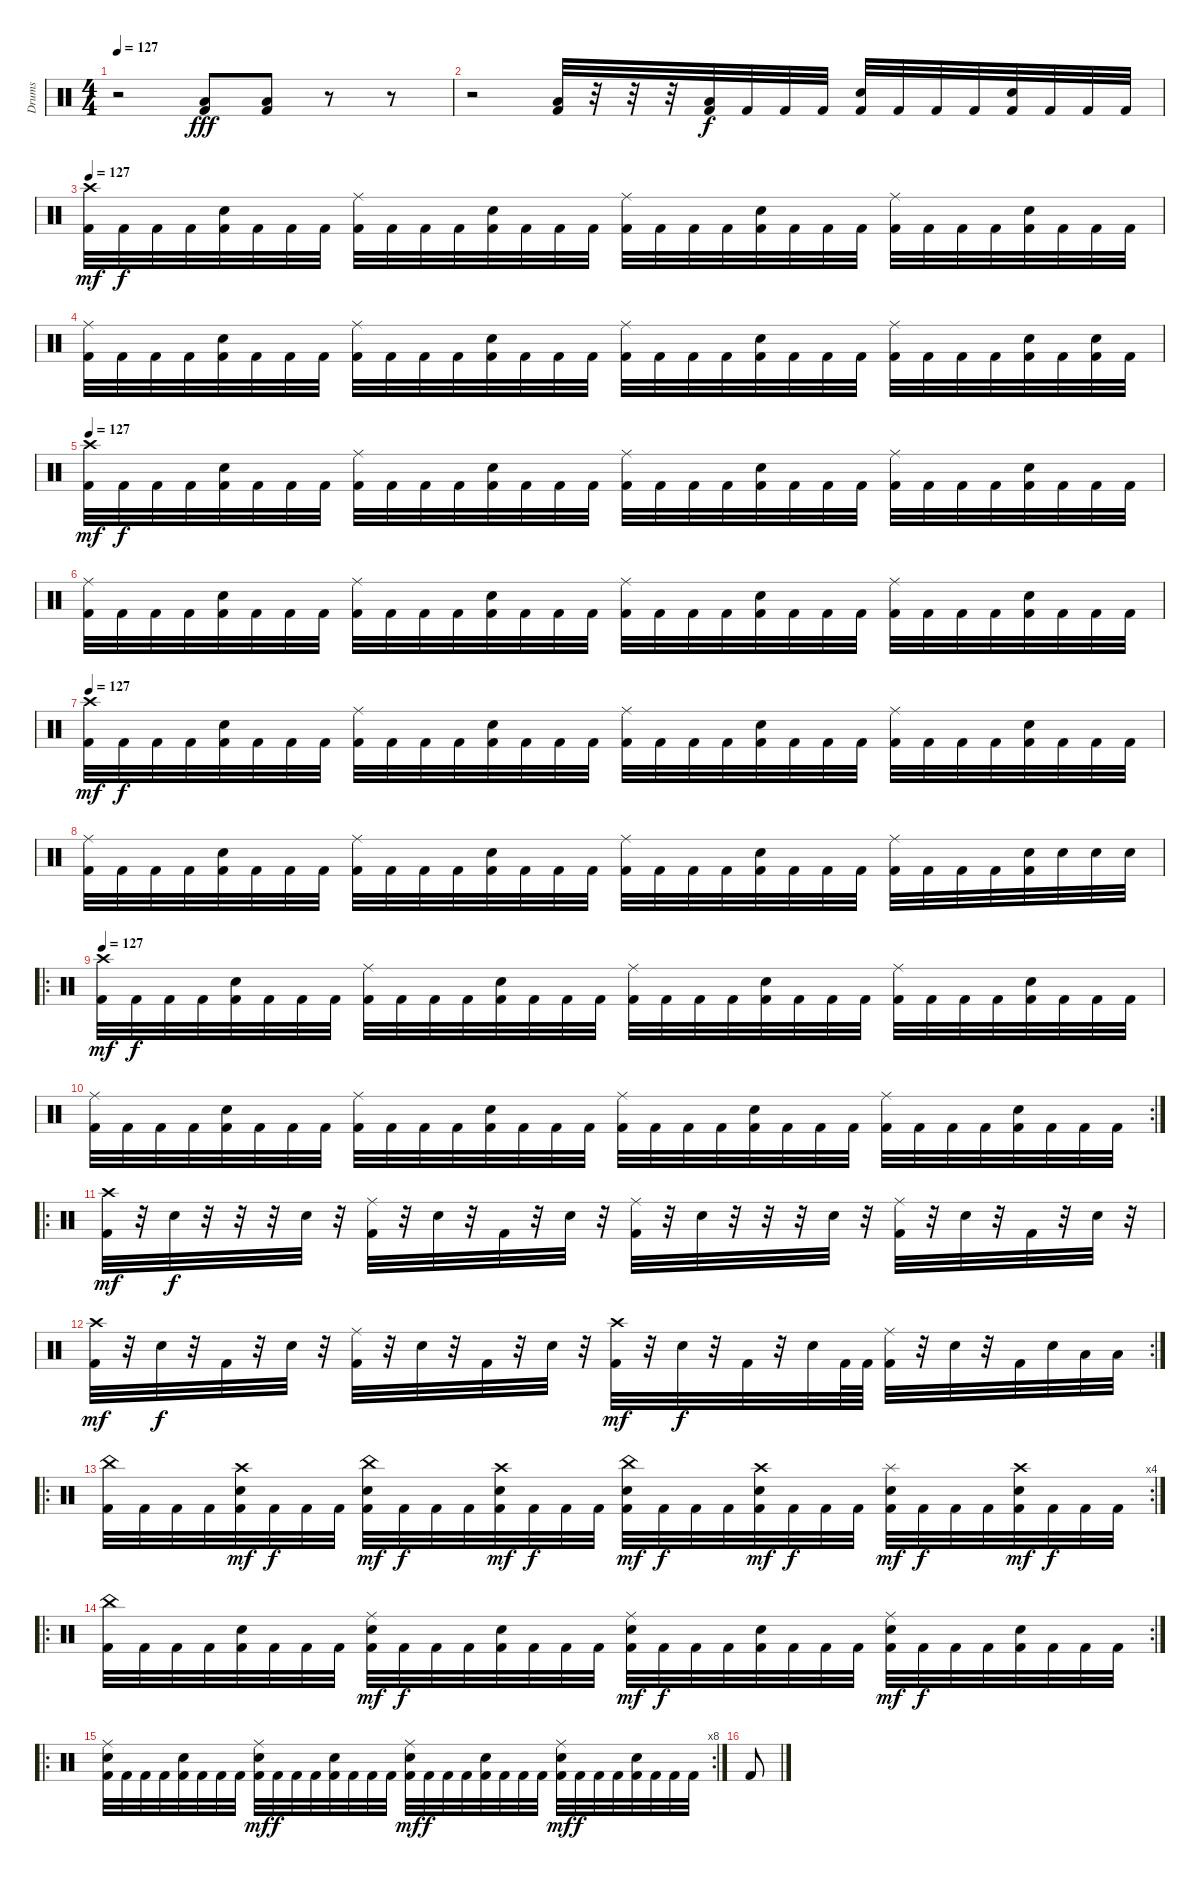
\track ("Drums" "Drums") {instrument percussion}
\staff {score}
\articulation defaults
\ts (4 4)
\tempo 127
\clef neutral
\ks c
r.2{dy fff} ("Low Tom (hit)" "Kick (hit) 2").8 ("Low Tom (hit)" "Kick (hit) 2").8 r.8 r.8 |
r.2 ("Low Tom (hit)" "Kick (hit) 2").32 r.32 r.32 r.32 ("Low Tom (hit)" "Kick (hit) 2").32{dy f} "Kick (hit) 2".32 "Kick (hit) 2".32 "Kick (hit) 2".32 ("Snare (hit) 2" "Kick (hit) 2").32 "Kick (hit) 2".32 "Kick (hit) 2".32 "Kick (hit) 2".32 ("Snare (hit) 2" "Kick (hit) 2").32 "Kick (hit) 2".32 "Kick (hit) 2".32 "Kick (hit) 2".32 |
\tempo 127
("Crash high (hit)" "Kick (hit) 2").32{dy mf} "Kick (hit) 2".32{dy f} "Kick (hit) 2".32 "Kick (hit) 2".32 ("Snare (hit) 2" "Kick (hit) 2").32 "Kick (hit) 2".32 "Kick (hit) 2".32 "Kick (hit) 2".32 ("Ride (middle)" "Kick (hit) 2").32 "Kick (hit) 2".32 "Kick (hit) 2".32 "Kick (hit) 2".32 ("Snare (hit) 2" "Kick (hit) 2").32 "Kick (hit) 2".32 "Kick (hit) 2".32 "Kick (hit) 2".32 ("Ride (middle)" "Kick (hit) 2").32 "Kick (hit) 2".32 "Kick (hit) 2".32 "Kick (hit) 2".32 ("Snare (hit) 2" "Kick (hit) 2").32 "Kick (hit) 2".32 "Kick (hit) 2".32 "Kick (hit) 2".32 ("Ride (middle)" "Kick (hit) 2").32 "Kick (hit) 2".32 "Kick (hit) 2".32 "Kick (hit) 2".32 ("Snare (hit) 2" "Kick (hit) 2").32 "Kick (hit) 2".32 "Kick (hit) 2".32 "Kick (hit) 2".32 |
("Ride (middle)" "Kick (hit) 2").32 "Kick (hit) 2".32 "Kick (hit) 2".32 "Kick (hit) 2".32 ("Snare (hit) 2" "Kick (hit) 2").32 "Kick (hit) 2".32 "Kick (hit) 2".32 "Kick (hit) 2".32 ("Ride (middle)" "Kick (hit) 2").32 "Kick (hit) 2".32 "Kick (hit) 2".32 "Kick (hit) 2".32 ("Snare (hit) 2" "Kick (hit) 2").32 "Kick (hit) 2".32 "Kick (hit) 2".32 "Kick (hit) 2".32 ("Ride (middle)" "Kick (hit) 2").32 "Kick (hit) 2".32 "Kick (hit) 2".32 "Kick (hit) 2".32 ("Snare (hit) 2" "Kick (hit) 2").32 "Kick (hit) 2".32 "Kick (hit) 2".32 "Kick (hit) 2".32 ("Ride (middle)" "Kick (hit) 2").32 "Kick (hit) 2".32 "Kick (hit) 2".32 "Kick (hit) 2".32 ("Snare (hit) 2" "Kick (hit) 2").32 "Kick (hit) 2".32 ("Snare (hit) 2" "Kick (hit) 2").32 "Kick (hit) 2".32 |
\tempo 127
("Crash high (hit)" "Kick (hit) 2").32{dy mf} "Kick (hit) 2".32{dy f} "Kick (hit) 2".32 "Kick (hit) 2".32 ("Snare (hit) 2" "Kick (hit) 2").32 "Kick (hit) 2".32 "Kick (hit) 2".32 "Kick (hit) 2".32 ("Ride (middle)" "Kick (hit) 2").32 "Kick (hit) 2".32 "Kick (hit) 2".32 "Kick (hit) 2".32 ("Snare (hit) 2" "Kick (hit) 2").32 "Kick (hit) 2".32 "Kick (hit) 2".32 "Kick (hit) 2".32 ("Ride (middle)" "Kick (hit) 2").32 "Kick (hit) 2".32 "Kick (hit) 2".32 "Kick (hit) 2".32 ("Snare (hit) 2" "Kick (hit) 2").32 "Kick (hit) 2".32 "Kick (hit) 2".32 "Kick (hit) 2".32 ("Ride (middle)" "Kick (hit) 2").32 "Kick (hit) 2".32 "Kick (hit) 2".32 "Kick (hit) 2".32 ("Snare (hit) 2" "Kick (hit) 2").32 "Kick (hit) 2".32 "Kick (hit) 2".32 "Kick (hit) 2".32 |
("Ride (middle)" "Kick (hit) 2").32 "Kick (hit) 2".32 "Kick (hit) 2".32 "Kick (hit) 2".32 ("Snare (hit) 2" "Kick (hit) 2").32 "Kick (hit) 2".32 "Kick (hit) 2".32 "Kick (hit) 2".32 ("Ride (middle)" "Kick (hit) 2").32 "Kick (hit) 2".32 "Kick (hit) 2".32 "Kick (hit) 2".32 ("Snare (hit) 2" "Kick (hit) 2").32 "Kick (hit) 2".32 "Kick (hit) 2".32 "Kick (hit) 2".32 ("Ride (middle)" "Kick (hit) 2").32 "Kick (hit) 2".32 "Kick (hit) 2".32 "Kick (hit) 2".32 ("Snare (hit) 2" "Kick (hit) 2").32 "Kick (hit) 2".32 "Kick (hit) 2".32 "Kick (hit) 2".32 ("Ride (middle)" "Kick (hit) 2").32 "Kick (hit) 2".32 "Kick (hit) 2".32 "Kick (hit) 2".32 ("Snare (hit) 2" "Kick (hit) 2").32 "Kick (hit) 2".32 "Kick (hit) 2".32 "Kick (hit) 2".32 |
\tempo 127
("Crash high (hit)" "Kick (hit) 2").32{dy mf} "Kick (hit) 2".32{dy f} "Kick (hit) 2".32 "Kick (hit) 2".32 ("Snare (hit) 2" "Kick (hit) 2").32 "Kick (hit) 2".32 "Kick (hit) 2".32 "Kick (hit) 2".32 ("Ride (middle)" "Kick (hit) 2").32 "Kick (hit) 2".32 "Kick (hit) 2".32 "Kick (hit) 2".32 ("Snare (hit) 2" "Kick (hit) 2").32 "Kick (hit) 2".32 "Kick (hit) 2".32 "Kick (hit) 2".32 ("Ride (middle)" "Kick (hit) 2").32 "Kick (hit) 2".32 "Kick (hit) 2".32 "Kick (hit) 2".32 ("Snare (hit) 2" "Kick (hit) 2").32 "Kick (hit) 2".32 "Kick (hit) 2".32 "Kick (hit) 2".32 ("Ride (middle)" "Kick (hit) 2").32 "Kick (hit) 2".32 "Kick (hit) 2".32 "Kick (hit) 2".32 ("Snare (hit) 2" "Kick (hit) 2").32 "Kick (hit) 2".32 "Kick (hit) 2".32 "Kick (hit) 2".32 |
("Ride (middle)" "Kick (hit) 2").32 "Kick (hit) 2".32 "Kick (hit) 2".32 "Kick (hit) 2".32 ("Snare (hit) 2" "Kick (hit) 2").32 "Kick (hit) 2".32 "Kick (hit) 2".32 "Kick (hit) 2".32 ("Ride (middle)" "Kick (hit) 2").32 "Kick (hit) 2".32 "Kick (hit) 2".32 "Kick (hit) 2".32 ("Snare (hit) 2" "Kick (hit) 2").32 "Kick (hit) 2".32 "Kick (hit) 2".32 "Kick (hit) 2".32 ("Ride (middle)" "Kick (hit) 2").32 "Kick (hit) 2".32 "Kick (hit) 2".32 "Kick (hit) 2".32 ("Snare (hit) 2" "Kick (hit) 2").32 "Kick (hit) 2".32 "Kick (hit) 2".32 "Kick (hit) 2".32 ("Ride (middle)" "Kick (hit) 2").32 "Kick (hit) 2".32 "Kick (hit) 2".32 "Kick (hit) 2".32 ("Snare (hit) 2" "Kick (hit) 2").32 "Snare (hit) 2".32 "Snare (hit) 2".32 "Snare (hit) 2".32 |
\ro
\tempo 127
("Crash high (hit)" "Kick (hit) 2").32{dy mf} "Kick (hit) 2".32{dy f} "Kick (hit) 2".32 "Kick (hit) 2".32 ("Snare (hit) 2" "Kick (hit) 2").32 "Kick (hit) 2".32 "Kick (hit) 2".32 "Kick (hit) 2".32 ("Ride (middle)" "Kick (hit) 2").32 "Kick (hit) 2".32 "Kick (hit) 2".32 "Kick (hit) 2".32 ("Snare (hit) 2" "Kick (hit) 2").32 "Kick (hit) 2".32 "Kick (hit) 2".32 "Kick (hit) 2".32 ("Ride (middle)" "Kick (hit) 2").32 "Kick (hit) 2".32 "Kick (hit) 2".32 "Kick (hit) 2".32 ("Snare (hit) 2" "Kick (hit) 2").32 "Kick (hit) 2".32 "Kick (hit) 2".32 "Kick (hit) 2".32 ("Ride (middle)" "Kick (hit) 2").32 "Kick (hit) 2".32 "Kick (hit) 2".32 "Kick (hit) 2".32 ("Snare (hit) 2" "Kick (hit) 2").32 "Kick (hit) 2".32 "Kick (hit) 2".32 "Kick (hit) 2".32 |
\rc 2
("Ride (middle)" "Kick (hit) 2").32 "Kick (hit) 2".32 "Kick (hit) 2".32 "Kick (hit) 2".32 ("Snare (hit) 2" "Kick (hit) 2").32 "Kick (hit) 2".32 "Kick (hit) 2".32 "Kick (hit) 2".32 ("Ride (middle)" "Kick (hit) 2").32 "Kick (hit) 2".32 "Kick (hit) 2".32 "Kick (hit) 2".32 ("Snare (hit) 2" "Kick (hit) 2").32 "Kick (hit) 2".32 "Kick (hit) 2".32 "Kick (hit) 2".32 ("Ride (middle)" "Kick (hit) 2").32 "Kick (hit) 2".32 "Kick (hit) 2".32 "Kick (hit) 2".32 ("Snare (hit) 2" "Kick (hit) 2").32 "Kick (hit) 2".32 "Kick (hit) 2".32 "Kick (hit) 2".32 ("Ride (middle)" "Kick (hit) 2").32 "Kick (hit) 2".32 "Kick (hit) 2".32 "Kick (hit) 2".32 ("Snare (hit) 2" "Kick (hit) 2").32 "Kick (hit) 2".32 "Kick (hit) 2".32 "Kick (hit) 2".32 |
\ro
("Crash high (hit)" "Kick (hit) 2").32{dy mf} r.32 "Snare (hit) 2".32{dy f} r.32 r.32 r.32 "Snare (hit) 2".32 r.32 ("Ride (middle)" "Kick (hit) 2").32 r.32 "Snare (hit) 2".32 r.32 "Kick (hit) 2".32 r.32 "Snare (hit) 2".32 r.32 ("Ride (middle)" "Kick (hit) 2").32 r.32 "Snare (hit) 2".32 r.32 r.32 r.32 "Snare (hit) 2".32 r.32 ("Ride (middle)" "Kick (hit) 2").32 r.32 "Snare (hit) 2".32 r.32 "Kick (hit) 2".32 r.32 "Snare (hit) 2".32 r.32 |
\rc 2
("Crash high (hit)" "Kick (hit) 2").32{dy mf} r.32 "Snare (hit) 2".32{dy f} r.32 "Kick (hit) 2".32 r.32 "Snare (hit) 2".32 r.32 ("Ride (middle)" "Kick (hit) 2").32 r.32 "Snare (hit) 2".32 r.32 "Kick (hit) 2".32 r.32 "Snare (hit) 2".32 r.32 ("Crash high (hit)" "Kick (hit) 2").32{dy mf} r.32 "Snare (hit) 2".32{dy f} r.32 "Kick (hit) 2".32 r.32 "Snare (hit) 2".32 "Kick (hit) 2".64 "Kick (hit) 2".64 ("Ride (middle)" "Kick (hit) 2").32 r.32 "Snare (hit) 2".32 r.32 "Kick (hit) 2".32 "Snare (hit) 2".32 "Low Tom (hit)".32 "Low Tom (hit)".32 |
\ro
\rc 4
("China (hit)" "Kick (hit) 2").32 "Kick (hit) 2".32 "Kick (hit) 2".32 "Kick (hit) 2".32 ("Crash high (hit)" "Snare (hit) 2" "Kick (hit) 2").32{dy mf} "Kick (hit) 2".32{dy f} "Kick (hit) 2".32 "Kick (hit) 2".32 ("China (hit)" "Snare (hit) 2" "Kick (hit) 2").32{dy mf} "Kick (hit) 2".32{dy f} "Kick (hit) 2".32 "Kick (hit) 2".32 ("Crash high (hit)" "Snare (hit) 2" "Kick (hit) 2").32{dy mf} "Kick (hit) 2".32{dy f} "Kick (hit) 2".32 "Kick (hit) 2".32 ("China (hit)" "Snare (hit) 2" "Kick (hit) 2").32{dy mf} "Kick (hit) 2".32{dy f} "Kick (hit) 2".32 "Kick (hit) 2".32 ("Crash high (hit)" "Snare (hit) 2" "Kick (hit) 2").32{dy mf} "Kick (hit) 2".32{dy f} "Kick (hit) 2".32 "Kick (hit) 2".32 ("Splash (hit)" "Snare (hit) 2" "Kick (hit) 2").32{dy mf} "Kick (hit) 2".32{dy f} "Kick (hit) 2".32 "Kick (hit) 2".32 ("Crash high (hit)" "Snare (hit) 2" "Kick (hit) 2").32{dy mf} "Kick (hit) 2".32{dy f} "Kick (hit) 2".32 "Kick (hit) 2".32 |
\ro
\rc 2
("China (hit)" "Kick (hit) 2").32 "Kick (hit) 2".32 "Kick (hit) 2".32 "Kick (hit) 2".32 ("Snare (hit) 2" "Kick (hit) 2").32 "Kick (hit) 2".32 "Kick (hit) 2".32 "Kick (hit) 2".32 ("Ride (middle)" "Snare (hit) 2" "Kick (hit) 2").32{dy mf} "Kick (hit) 2".32{dy f} "Kick (hit) 2".32 "Kick (hit) 2".32 ("Snare (hit) 2" "Kick (hit) 2").32 "Kick (hit) 2".32 "Kick (hit) 2".32 "Kick (hit) 2".32 ("Ride (middle)" "Snare (hit) 2" "Kick (hit) 2").32{dy mf} "Kick (hit) 2".32{dy f} "Kick (hit) 2".32 "Kick (hit) 2".32 ("Snare (hit) 2" "Kick (hit) 2").32 "Kick (hit) 2".32 "Kick (hit) 2".32 "Kick (hit) 2".32 ("Ride (middle)" "Snare (hit) 2" "Kick (hit) 2").32{dy mf} "Kick (hit) 2".32{dy f} "Kick (hit) 2".32 "Kick (hit) 2".32 ("Snare (hit) 2" "Kick (hit) 2").32 "Kick (hit) 2".32 "Kick (hit) 2".32 "Kick (hit) 2".32 |
\ro
\rc 8
("Ride (middle)" "Snare (hit) 2" "Kick (hit) 2").32 "Kick (hit) 2".32 "Kick (hit) 2".32 "Kick (hit) 2".32 ("Snare (hit) 2" "Kick (hit) 2").32 "Kick (hit) 2".32 "Kick (hit) 2".32 "Kick (hit) 2".32 ("Ride (middle)" "Snare (hit) 2" "Kick (hit) 2").32{dy mf} "Kick (hit) 2".32{dy f} "Kick (hit) 2".32 "Kick (hit) 2".32 ("Snare (hit) 2" "Kick (hit) 2").32 "Kick (hit) 2".32 "Kick (hit) 2".32 "Kick (hit) 2".32 ("Ride (middle)" "Snare (hit) 2" "Kick (hit) 2").32{dy mf} "Kick (hit) 2".32{dy f} "Kick (hit) 2".32 "Kick (hit) 2".32 ("Snare (hit) 2" "Kick (hit) 2").32 "Kick (hit) 2".32 "Kick (hit) 2".32 "Kick (hit) 2".32 ("Ride (middle)" "Snare (hit) 2" "Kick (hit) 2").32{dy mf} "Kick (hit) 2".32{dy f} "Kick (hit) 2".32 "Kick (hit) 2".32 ("Snare (hit) 2" "Kick (hit) 2").32 "Kick (hit) 2".32 "Kick (hit) 2".32 "Kick (hit) 2".32 |
"Kick (hit) 2".8
